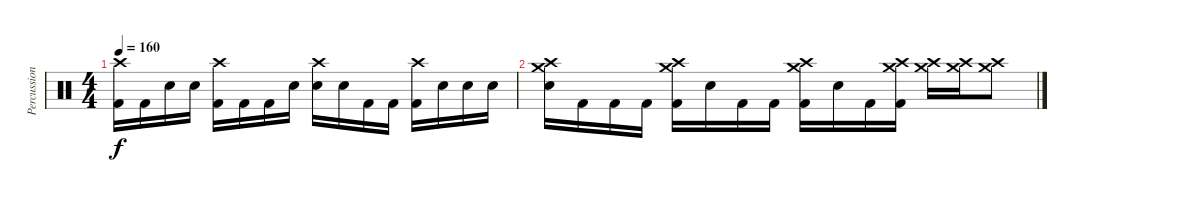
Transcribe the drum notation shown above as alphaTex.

\track ("Percussion" "Percussion") {instrument percussion}
\staff {score}
\articulation defaults
\ts (4 4)
\tempo 160
\clef neutral
\ks c
("Crash high (hit)" "Kick (hit) 2").16{dy f} "Kick (hit) 2".16 "Electric Snare (hit)".16 "Electric Snare (hit)".16 ("Crash high (hit)" "Kick (hit) 2").16 "Kick (hit) 2".16 "Kick (hit) 2".16 "Electric Snare (hit)".16 ("Crash high (hit)" "Electric Snare (hit)").16 "Electric Snare (hit)".16 "Kick (hit) 2".16 "Kick (hit) 2".16 ("Crash high (hit)" "Kick (hit) 2").16 "Electric Snare (hit)".16 "Electric Snare (hit)".16 "Electric Snare (hit)".16 |
("Crash medium (hit)" "Crash high (hit)" "Electric Snare (hit)").16 "Kick (hit) 2".16 "Kick (hit) 2".16 "Kick (hit) 2".16 ("Crash medium (hit)" "Crash high (hit)" "Kick (hit) 2").16 "Electric Snare (hit)".16 "Kick (hit) 2".16 "Kick (hit) 2".16 ("Crash medium (hit)" "Crash high (hit)" "Kick (hit) 2").16 "Electric Snare (hit)".16 "Kick (hit) 2".16 ("Crash medium (hit)" "Crash high (hit)" "Kick (hit) 2").16 ("Crash medium (hit)" "Crash high (hit)").16 ("Crash medium (hit)" "Crash high (hit)").16 ("Crash medium (hit)" "Crash high (hit)").8
